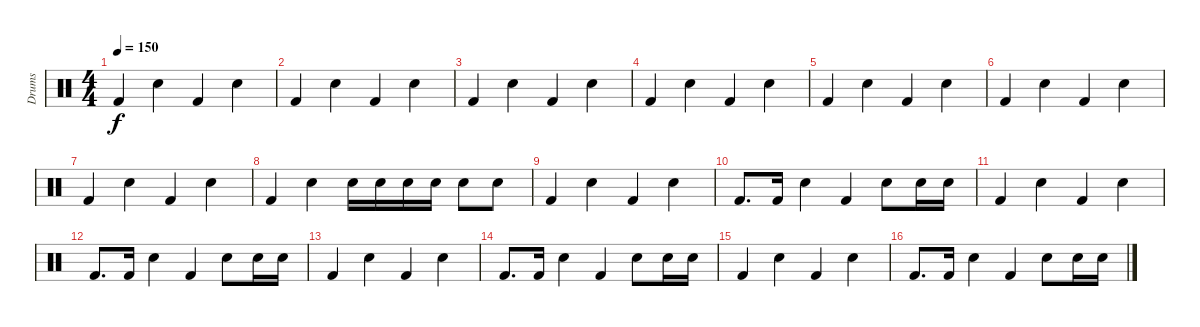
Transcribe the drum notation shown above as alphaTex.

\track ("Drums" "Drums") {instrument percussion}
\staff {score}
\articulation defaults
\ts (4 4)
\tempo 150
\clef neutral
\ks c "Kick (hit) 2".4{dy f} "Electric Snare (hit)".4 "Kick (hit) 2".4 "Electric Snare (hit)".4
|
"Kick (hit) 2".4 "Electric Snare (hit)".4 "Kick (hit) 2".4 "Electric Snare (hit)".4 |
"Kick (hit) 2".4 "Electric Snare (hit)".4 "Kick (hit) 2".4 "Electric Snare (hit)".4 |
"Kick (hit) 2".4 "Electric Snare (hit)".4 "Kick (hit) 2".4 "Electric Snare (hit)".4 |
"Kick (hit) 2".4 "Electric Snare (hit)".4 "Kick (hit) 2".4 "Electric Snare (hit)".4 |
"Kick (hit) 2".4 "Electric Snare (hit)".4 "Kick (hit) 2".4 "Electric Snare (hit)".4 |
"Kick (hit) 2".4 "Electric Snare (hit)".4 "Kick (hit) 2".4 "Electric Snare (hit)".4 |
"Kick (hit) 2".4 "Electric Snare (hit)".4 "Electric Snare (hit)".16 "Electric Snare (hit)".16 "Electric Snare (hit)".16 "Electric Snare (hit)".16 "Electric Snare (hit)".8 "Electric Snare (hit)".8 |
"Kick (hit) 2".4 "Electric Snare (hit)".4 "Kick (hit) 2".4 "Electric Snare (hit)".4 |
"Kick (hit) 2".8{d} "Kick (hit) 2".16 "Electric Snare (hit)".4 "Kick (hit) 2".4 "Electric Snare (hit)".8 "Electric Snare (hit)".16 "Electric Snare (hit)".16 |
"Kick (hit) 2".4 "Electric Snare (hit)".4 "Kick (hit) 2".4 "Electric Snare (hit)".4 |
"Kick (hit) 2".8{d} "Kick (hit) 2".16 "Electric Snare (hit)".4 "Kick (hit) 2".4 "Electric Snare (hit)".8 "Electric Snare (hit)".16 "Electric Snare (hit)".16 |
"Kick (hit) 2".4 "Electric Snare (hit)".4 "Kick (hit) 2".4 "Electric Snare (hit)".4 |
"Kick (hit) 2".8{d} "Kick (hit) 2".16 "Electric Snare (hit)".4 "Kick (hit) 2".4 "Electric Snare (hit)".8 "Electric Snare (hit)".16 "Electric Snare (hit)".16 |
"Kick (hit) 2".4 "Electric Snare (hit)".4 "Kick (hit) 2".4 "Electric Snare (hit)".4 |
"Kick (hit) 2".8{d} "Kick (hit) 2".16 "Electric Snare (hit)".4 "Kick (hit) 2".4 "Electric Snare (hit)".8 "Electric Snare (hit)".16 "Electric Snare (hit)".16
